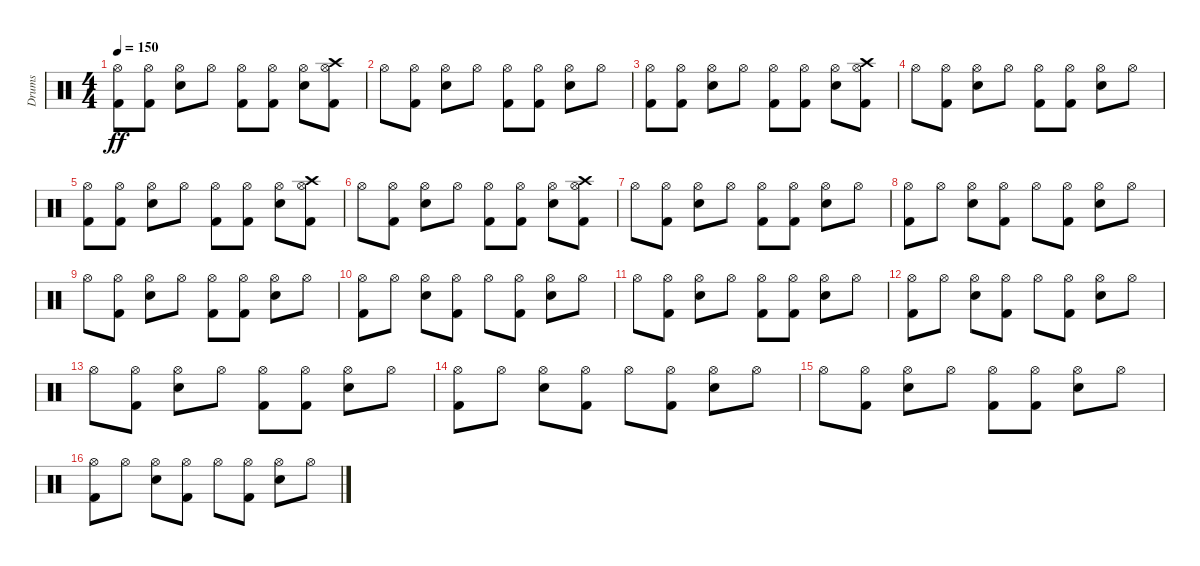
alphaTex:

\track ("Drums" "Drums") {instrument percussion}
\staff {score}
\articulation defaults
\ts (4 4)
\tempo 150
\clef neutral
\ks c
("Kick (hit) 2" "Hi-Hat (open)").8{dy ff} ("Kick (hit) 2" "Hi-Hat (open)").8 ("Snare (hit) 2" "Hi-Hat (open)").8 "Hi-Hat (open)".8 ("Kick (hit) 2" "Hi-Hat (open)").8 ("Kick (hit) 2" "Hi-Hat (open)").8 ("Snare (hit) 2" "Hi-Hat (open)").8 ("Kick (hit) 2" "Hi-Hat (open)" "Crash high (hit)").8 |
"Hi-Hat (open)".8 ("Kick (hit) 2" "Hi-Hat (open)").8 ("Snare (hit) 2" "Hi-Hat (open)").8 "Hi-Hat (open)".8 ("Kick (hit) 2" "Hi-Hat (open)").8 ("Kick (hit) 2" "Hi-Hat (open)").8 ("Snare (hit) 2" "Hi-Hat (open)").8 "Hi-Hat (open)".8 |
("Kick (hit) 2" "Hi-Hat (open)").8 ("Kick (hit) 2" "Hi-Hat (open)").8 ("Snare (hit) 2" "Hi-Hat (open)").8 "Hi-Hat (open)".8 ("Kick (hit) 2" "Hi-Hat (open)").8 ("Kick (hit) 2" "Hi-Hat (open)").8 ("Snare (hit) 2" "Hi-Hat (open)").8 ("Kick (hit) 2" "Hi-Hat (open)" "Crash high (hit)").8 |
"Hi-Hat (open)".8 ("Kick (hit) 2" "Hi-Hat (open)").8 ("Snare (hit) 2" "Hi-Hat (open)").8 "Hi-Hat (open)".8 ("Kick (hit) 2" "Hi-Hat (open)").8 ("Kick (hit) 2" "Hi-Hat (open)").8 ("Snare (hit) 2" "Hi-Hat (open)").8 "Hi-Hat (open)".8 |
("Kick (hit) 2" "Hi-Hat (open)").8 ("Kick (hit) 2" "Hi-Hat (open)").8 ("Snare (hit) 2" "Hi-Hat (open)").8 "Hi-Hat (open)".8 ("Kick (hit) 2" "Hi-Hat (open)").8 ("Kick (hit) 2" "Hi-Hat (open)").8 ("Snare (hit) 2" "Hi-Hat (open)").8 ("Kick (hit) 2" "Hi-Hat (open)" "Crash high (hit)").8 |
"Hi-Hat (open)".8 ("Kick (hit) 2" "Hi-Hat (open)").8 ("Snare (hit) 2" "Hi-Hat (open)").8 "Hi-Hat (open)".8 ("Kick (hit) 2" "Hi-Hat (open)").8 ("Kick (hit) 2" "Hi-Hat (open)").8 ("Snare (hit) 2" "Hi-Hat (open)").8 ("Kick (hit) 2" "Hi-Hat (open)" "Crash high (hit)").8 |
"Hi-Hat (open)".8 ("Kick (hit) 2" "Hi-Hat (open)").8 ("Snare (hit) 2" "Hi-Hat (open)").8 "Hi-Hat (open)".8 ("Kick (hit) 2" "Hi-Hat (open)").8 ("Kick (hit) 2" "Hi-Hat (open)").8 ("Snare (hit) 2" "Hi-Hat (open)").8 "Hi-Hat (open)".8 |
("Kick (hit) 2" "Hi-Hat (open)").8 "Hi-Hat (open)".8 ("Snare (hit) 2" "Hi-Hat (open)").8 ("Kick (hit) 2" "Hi-Hat (open)").8 "Hi-Hat (open)".8 ("Kick (hit) 2" "Hi-Hat (open)").8 ("Snare (hit) 2" "Hi-Hat (open)").8 "Hi-Hat (open)".8 |
"Hi-Hat (open)".8 ("Kick (hit) 2" "Hi-Hat (open)").8 ("Snare (hit) 2" "Hi-Hat (open)").8 "Hi-Hat (open)".8 ("Kick (hit) 2" "Hi-Hat (open)").8 ("Kick (hit) 2" "Hi-Hat (open)").8 ("Snare (hit) 2" "Hi-Hat (open)").8 "Hi-Hat (open)".8 |
("Kick (hit) 2" "Hi-Hat (open)").8 "Hi-Hat (open)".8 ("Snare (hit) 2" "Hi-Hat (open)").8 ("Kick (hit) 2" "Hi-Hat (open)").8 "Hi-Hat (open)".8 ("Kick (hit) 2" "Hi-Hat (open)").8 ("Snare (hit) 2" "Hi-Hat (open)").8 "Hi-Hat (open)".8 |
"Hi-Hat (open)".8 ("Kick (hit) 2" "Hi-Hat (open)").8 ("Snare (hit) 2" "Hi-Hat (open)").8 "Hi-Hat (open)".8 ("Kick (hit) 2" "Hi-Hat (open)").8 ("Kick (hit) 2" "Hi-Hat (open)").8 ("Snare (hit) 2" "Hi-Hat (open)").8 "Hi-Hat (open)".8 |
("Kick (hit) 2" "Hi-Hat (open)").8 "Hi-Hat (open)".8 ("Snare (hit) 2" "Hi-Hat (open)").8 ("Kick (hit) 2" "Hi-Hat (open)").8 "Hi-Hat (open)".8 ("Kick (hit) 2" "Hi-Hat (open)").8 ("Snare (hit) 2" "Hi-Hat (open)").8 "Hi-Hat (open)".8 |
"Hi-Hat (open)".8 ("Kick (hit) 2" "Hi-Hat (open)").8 ("Snare (hit) 2" "Hi-Hat (open)").8 "Hi-Hat (open)".8 ("Kick (hit) 2" "Hi-Hat (open)").8 ("Kick (hit) 2" "Hi-Hat (open)").8 ("Snare (hit) 2" "Hi-Hat (open)").8 "Hi-Hat (open)".8 |
("Kick (hit) 2" "Hi-Hat (open)").8 "Hi-Hat (open)".8 ("Snare (hit) 2" "Hi-Hat (open)").8 ("Kick (hit) 2" "Hi-Hat (open)").8 "Hi-Hat (open)".8 ("Kick (hit) 2" "Hi-Hat (open)").8 ("Snare (hit) 2" "Hi-Hat (open)").8 "Hi-Hat (open)".8 |
"Hi-Hat (open)".8 ("Kick (hit) 2" "Hi-Hat (open)").8 ("Snare (hit) 2" "Hi-Hat (open)").8 "Hi-Hat (open)".8 ("Kick (hit) 2" "Hi-Hat (open)").8 ("Kick (hit) 2" "Hi-Hat (open)").8 ("Snare (hit) 2" "Hi-Hat (open)").8 "Hi-Hat (open)".8 |
("Kick (hit) 2" "Hi-Hat (open)").8 "Hi-Hat (open)".8 ("Snare (hit) 2" "Hi-Hat (open)").8 ("Kick (hit) 2" "Hi-Hat (open)").8 "Hi-Hat (open)".8 ("Kick (hit) 2" "Hi-Hat (open)").8 ("Snare (hit) 2" "Hi-Hat (open)").8 "Hi-Hat (open)".8
